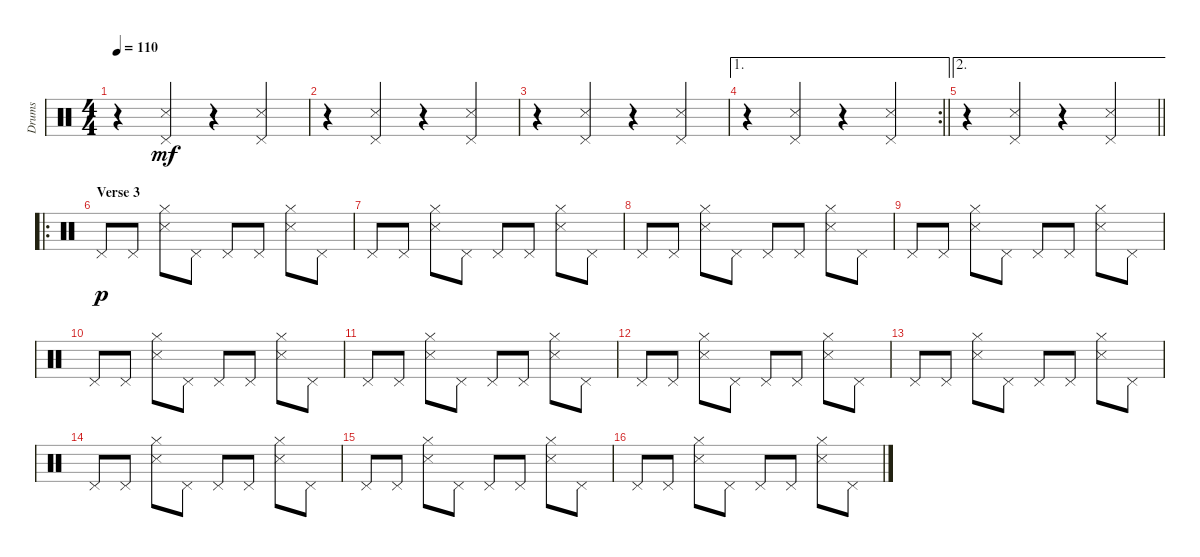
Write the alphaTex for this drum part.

\track ("Drums" "Drums") {instrument percussion}
\staff {score}
\articulation defaults
\ts (4 4)
\tempo 110
\clef neutral
\ks c
r.4{dy mf} ("Pedal Hi-Hat (hit)" "Snare (side stick) 3").4 r.4 ("Pedal Hi-Hat (hit)" "Snare (side stick) 3").4 |
r.4 ("Pedal Hi-Hat (hit)" "Snare (side stick) 3").4 r.4 ("Pedal Hi-Hat (hit)" "Snare (side stick) 3").4 |
r.4 ("Pedal Hi-Hat (hit)" "Snare (side stick) 3").4 r.4 ("Pedal Hi-Hat (hit)" "Snare (side stick) 3").4 |
\ae 1
\rc 2
\barLineRight lightlight
r.4 ("Pedal Hi-Hat (hit)" "Snare (side stick) 3").4 r.4 ("Pedal Hi-Hat (hit)" "Snare (side stick) 3").4 |
\ae 2
\barLineRight lightlight
r.4 ("Pedal Hi-Hat (hit)" "Snare (side stick) 3").4 r.4 ("Pedal Hi-Hat (hit)" "Snare (side stick) 3").4 |
\ro
\section ("" "Verse 3")
"Pedal Hi-Hat (hit)".8{dy p} "Pedal Hi-Hat (hit)".8 ("Hi-Hat (closed)" "Snare (side stick) 3").8 "Pedal Hi-Hat (hit)".8 "Pedal Hi-Hat (hit)".8 "Pedal Hi-Hat (hit)".8 ("Hi-Hat (closed)" "Snare (side stick) 3").8 "Pedal Hi-Hat (hit)".8 |
"Pedal Hi-Hat (hit)".8 "Pedal Hi-Hat (hit)".8 ("Hi-Hat (closed)" "Snare (side stick) 3").8 "Pedal Hi-Hat (hit)".8 "Pedal Hi-Hat (hit)".8 "Pedal Hi-Hat (hit)".8 ("Hi-Hat (closed)" "Snare (side stick) 3").8 "Pedal Hi-Hat (hit)".8 |
"Pedal Hi-Hat (hit)".8 "Pedal Hi-Hat (hit)".8 ("Hi-Hat (closed)" "Snare (side stick) 3").8 "Pedal Hi-Hat (hit)".8 "Pedal Hi-Hat (hit)".8 "Pedal Hi-Hat (hit)".8 ("Hi-Hat (closed)" "Snare (side stick) 3").8 "Pedal Hi-Hat (hit)".8 |
"Pedal Hi-Hat (hit)".8 "Pedal Hi-Hat (hit)".8 ("Hi-Hat (closed)" "Snare (side stick) 3").8 "Pedal Hi-Hat (hit)".8 "Pedal Hi-Hat (hit)".8 "Pedal Hi-Hat (hit)".8 ("Hi-Hat (closed)" "Snare (side stick) 3").8 "Pedal Hi-Hat (hit)".8 |
"Pedal Hi-Hat (hit)".8 "Pedal Hi-Hat (hit)".8 ("Hi-Hat (closed)" "Snare (side stick) 3").8 "Pedal Hi-Hat (hit)".8 "Pedal Hi-Hat (hit)".8 "Pedal Hi-Hat (hit)".8 ("Hi-Hat (closed)" "Snare (side stick) 3").8 "Pedal Hi-Hat (hit)".8 |
"Pedal Hi-Hat (hit)".8 "Pedal Hi-Hat (hit)".8 ("Hi-Hat (closed)" "Snare (side stick) 3").8 "Pedal Hi-Hat (hit)".8 "Pedal Hi-Hat (hit)".8 "Pedal Hi-Hat (hit)".8 ("Hi-Hat (closed)" "Snare (side stick) 3").8 "Pedal Hi-Hat (hit)".8 |
"Pedal Hi-Hat (hit)".8 "Pedal Hi-Hat (hit)".8 ("Hi-Hat (closed)" "Snare (side stick) 3").8 "Pedal Hi-Hat (hit)".8 "Pedal Hi-Hat (hit)".8 "Pedal Hi-Hat (hit)".8 ("Hi-Hat (closed)" "Snare (side stick) 3").8 "Pedal Hi-Hat (hit)".8 |
"Pedal Hi-Hat (hit)".8 "Pedal Hi-Hat (hit)".8 ("Hi-Hat (closed)" "Snare (side stick) 3").8 "Pedal Hi-Hat (hit)".8 "Pedal Hi-Hat (hit)".8 "Pedal Hi-Hat (hit)".8 ("Hi-Hat (closed)" "Snare (side stick) 3").8 "Pedal Hi-Hat (hit)".8 |
"Pedal Hi-Hat (hit)".8 "Pedal Hi-Hat (hit)".8 ("Hi-Hat (closed)" "Snare (side stick) 3").8 "Pedal Hi-Hat (hit)".8 "Pedal Hi-Hat (hit)".8 "Pedal Hi-Hat (hit)".8 ("Hi-Hat (closed)" "Snare (side stick) 3").8 "Pedal Hi-Hat (hit)".8 |
"Pedal Hi-Hat (hit)".8 "Pedal Hi-Hat (hit)".8 ("Hi-Hat (closed)" "Snare (side stick) 3").8 "Pedal Hi-Hat (hit)".8 "Pedal Hi-Hat (hit)".8 "Pedal Hi-Hat (hit)".8 ("Hi-Hat (closed)" "Snare (side stick) 3").8 "Pedal Hi-Hat (hit)".8 |
"Pedal Hi-Hat (hit)".8 "Pedal Hi-Hat (hit)".8 ("Hi-Hat (closed)" "Snare (side stick) 3").8 "Pedal Hi-Hat (hit)".8 "Pedal Hi-Hat (hit)".8 "Pedal Hi-Hat (hit)".8 ("Hi-Hat (closed)" "Snare (side stick) 3").8 "Pedal Hi-Hat (hit)".8
